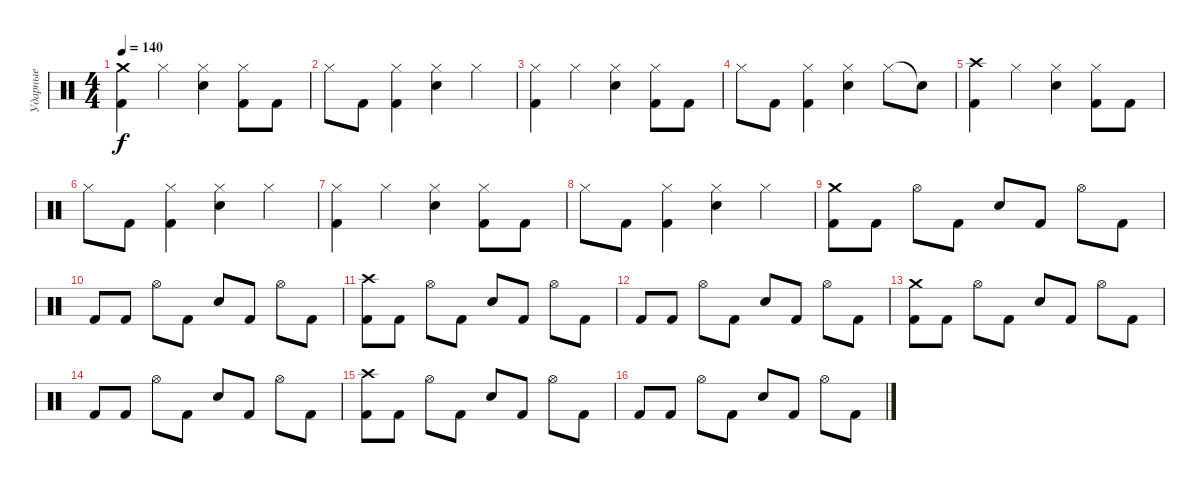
\track ("Ударные" "Ударные") {instrument percussion}
\staff {score}
\articulation defaults
\ts (4 4)
\tempo 140
\clef neutral
\ks c
("Kick (hit) 2" "Crash medium (hit)").4{dy f} "Hi-Hat (closed)".4 ("Snare (hit) 2" "Hi-Hat (closed)").4 ("Kick (hit) 2" "Hi-Hat (closed)").8 "Kick (hit) 2".8 |
"Hi-Hat (closed)".8 "Kick (hit) 2".8 ("Kick (hit) 2" "Hi-Hat (closed)").4 ("Snare (hit) 2" "Hi-Hat (closed)").4 "Hi-Hat (closed)".4 |
("Hi-Hat (closed)" "Kick (hit) 2").4 "Hi-Hat (closed)".4 ("Snare (hit) 2" "Hi-Hat (closed)").4 ("Kick (hit) 2" "Hi-Hat (closed)").8 "Kick (hit) 2".8 |
"Hi-Hat (closed)".8 "Kick (hit) 2".8 ("Kick (hit) 2" "Hi-Hat (closed)").4 ("Snare (hit) 2" "Hi-Hat (closed)").4 "Hi-Hat (closed)".8 "Snare (hit)"{t}.8 |
("Kick (hit) 2" "Crash high (hit)").4 "Hi-Hat (closed)".4 ("Snare (hit) 2" "Hi-Hat (closed)").4 ("Kick (hit) 2" "Hi-Hat (closed)").8 "Kick (hit) 2".8 |
"Hi-Hat (closed)".8 "Kick (hit) 2".8 ("Kick (hit) 2" "Hi-Hat (closed)").4 ("Snare (hit) 2" "Hi-Hat (closed)").4 "Hi-Hat (closed)".4 |
("Hi-Hat (closed)" "Kick (hit) 2").4 "Hi-Hat (closed)".4 ("Snare (hit) 2" "Hi-Hat (closed)").4 ("Kick (hit) 2" "Hi-Hat (closed)").8 "Kick (hit) 2".8 |
"Hi-Hat (closed)".8 "Kick (hit) 2".8 ("Kick (hit) 2" "Hi-Hat (closed)").4 ("Snare (hit) 2" "Hi-Hat (closed)").4 "Hi-Hat (closed)".4 |
("Crash medium (hit)" "Kick (hit) 2").8 "Kick (hit) 2".8 "Hi-Hat (open)".8 "Kick (hit) 2".8 "Snare (hit) 2".8 "Kick (hit) 2".8 "Hi-Hat (open)".8 "Kick (hit) 2".8 |
"Kick (hit) 2".8 "Kick (hit) 2".8 "Hi-Hat (open)".8 "Kick (hit) 2".8 "Snare (hit) 2".8 "Kick (hit) 2".8 "Hi-Hat (open)".8 "Kick (hit) 2".8 |
("Crash high (hit)" "Kick (hit) 2").8 "Kick (hit) 2".8 "Hi-Hat (open)".8 "Kick (hit) 2".8 "Snare (hit) 2".8 "Kick (hit) 2".8 "Hi-Hat (open)".8 "Kick (hit) 2".8 |
"Kick (hit) 2".8 "Kick (hit) 2".8 "Hi-Hat (open)".8 "Kick (hit) 2".8 "Snare (hit) 2".8 "Kick (hit) 2".8 "Hi-Hat (open)".8 "Kick (hit) 2".8 |
("Crash medium (hit)" "Kick (hit) 2").8 "Kick (hit) 2".8 "Hi-Hat (open)".8 "Kick (hit) 2".8 "Snare (hit) 2".8 "Kick (hit) 2".8 "Hi-Hat (open)".8 "Kick (hit) 2".8 |
"Kick (hit) 2".8 "Kick (hit) 2".8 "Hi-Hat (open)".8 "Kick (hit) 2".8 "Snare (hit) 2".8 "Kick (hit) 2".8 "Hi-Hat (open)".8 "Kick (hit) 2".8 |
("Crash high (hit)" "Kick (hit) 2").8 "Kick (hit) 2".8 "Hi-Hat (open)".8 "Kick (hit) 2".8 "Snare (hit) 2".8 "Kick (hit) 2".8 "Hi-Hat (open)".8 "Kick (hit) 2".8 |
"Kick (hit) 2".8 "Kick (hit) 2".8 "Hi-Hat (open)".8 "Kick (hit) 2".8 "Snare (hit) 2".8 "Kick (hit) 2".8 "Hi-Hat (open)".8 "Kick (hit) 2".8
